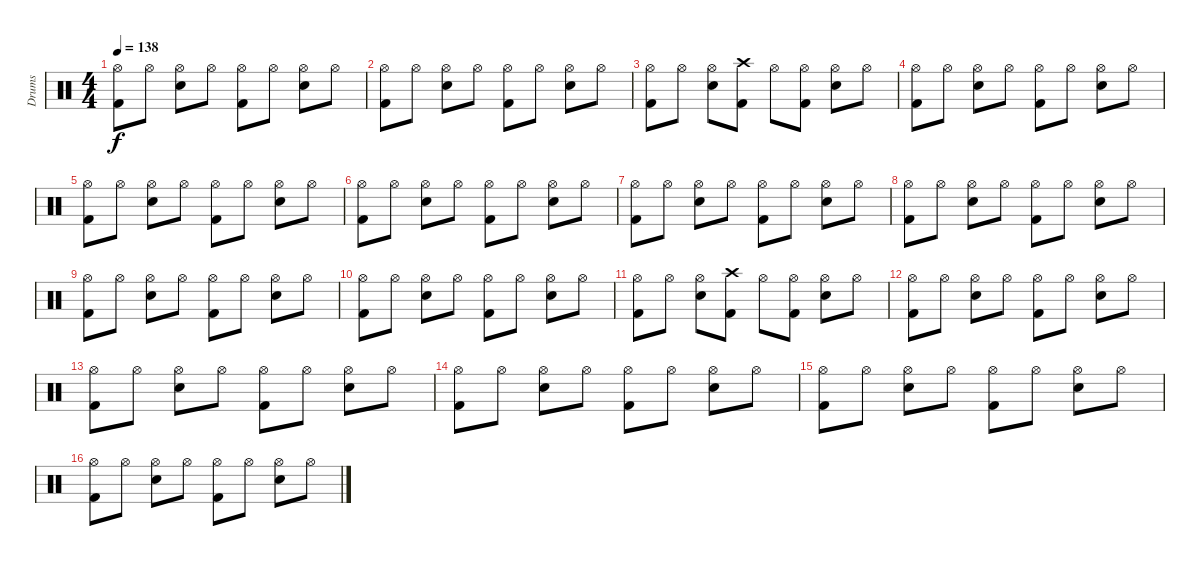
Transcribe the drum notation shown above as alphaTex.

\track ("Drums" "Drums") {instrument percussion}
\staff {score}
\articulation defaults
\ts (4 4)
\tempo 138
\clef neutral
\ks c
("Hi-Hat (open)" "Kick (hit) 2").8{dy f} "Hi-Hat (open)".8 ("Hi-Hat (open)" "Snare (hit) 2").8 "Hi-Hat (open)".8 ("Hi-Hat (open)" "Kick (hit) 2").8 "Hi-Hat (open)".8 ("Hi-Hat (open)" "Snare (hit) 2").8 "Hi-Hat (open)".8 |
("Hi-Hat (open)" "Kick (hit) 2").8 "Hi-Hat (open)".8 ("Hi-Hat (open)" "Snare (hit) 2").8 "Hi-Hat (open)".8 ("Hi-Hat (open)" "Kick (hit) 2").8 "Hi-Hat (open)".8 ("Hi-Hat (open)" "Snare (hit) 2").8 "Hi-Hat (open)".8 |
("Hi-Hat (open)" "Kick (hit) 2").8 "Hi-Hat (open)".8 ("Hi-Hat (open)" "Snare (hit) 2").8 ("Crash high (hit)" "Kick (hit) 2").8 "Hi-Hat (open)".8 ("Hi-Hat (open)" "Kick (hit) 2").8 ("Hi-Hat (open)" "Snare (hit) 2").8 "Hi-Hat (open)".8 |
("Hi-Hat (open)" "Kick (hit) 2").8 "Hi-Hat (open)".8 ("Hi-Hat (open)" "Snare (hit) 2").8 "Hi-Hat (open)".8 ("Hi-Hat (open)" "Kick (hit) 2").8 "Hi-Hat (open)".8 ("Hi-Hat (open)" "Snare (hit) 2").8 "Hi-Hat (open)".8 |
("Hi-Hat (open)" "Kick (hit) 2").8 "Hi-Hat (open)".8 ("Hi-Hat (open)" "Snare (hit) 2").8 "Hi-Hat (open)".8 ("Hi-Hat (open)" "Kick (hit) 2").8 "Hi-Hat (open)".8 ("Hi-Hat (open)" "Snare (hit) 2").8 "Hi-Hat (open)".8 |
("Hi-Hat (open)" "Kick (hit) 2").8 "Hi-Hat (open)".8 ("Hi-Hat (open)" "Snare (hit) 2").8 "Hi-Hat (open)".8 ("Hi-Hat (open)" "Kick (hit) 2").8 "Hi-Hat (open)".8 ("Hi-Hat (open)" "Snare (hit) 2").8 "Hi-Hat (open)".8 |
("Hi-Hat (open)" "Kick (hit) 2").8 "Hi-Hat (open)".8 ("Hi-Hat (open)" "Snare (hit) 2").8 "Hi-Hat (open)".8 ("Hi-Hat (open)" "Kick (hit) 2").8 "Hi-Hat (open)".8 ("Hi-Hat (open)" "Snare (hit) 2").8 "Hi-Hat (open)".8 |
("Hi-Hat (open)" "Kick (hit) 2").8 "Hi-Hat (open)".8 ("Hi-Hat (open)" "Snare (hit) 2").8 "Hi-Hat (open)".8 ("Hi-Hat (open)" "Kick (hit) 2").8 "Hi-Hat (open)".8 ("Hi-Hat (open)" "Snare (hit) 2").8 "Hi-Hat (open)".8 |
("Hi-Hat (open)" "Kick (hit) 2").8 "Hi-Hat (open)".8 ("Hi-Hat (open)" "Snare (hit) 2").8 "Hi-Hat (open)".8 ("Hi-Hat (open)" "Kick (hit) 2").8 "Hi-Hat (open)".8 ("Hi-Hat (open)" "Snare (hit) 2").8 "Hi-Hat (open)".8 |
("Hi-Hat (open)" "Kick (hit) 2").8 "Hi-Hat (open)".8 ("Hi-Hat (open)" "Snare (hit) 2").8 "Hi-Hat (open)".8 ("Hi-Hat (open)" "Kick (hit) 2").8 "Hi-Hat (open)".8 ("Hi-Hat (open)" "Snare (hit) 2").8 "Hi-Hat (open)".8 |
("Hi-Hat (open)" "Kick (hit) 2").8 "Hi-Hat (open)".8 ("Hi-Hat (open)" "Snare (hit) 2").8 ("Crash high (hit)" "Kick (hit) 2").8 "Hi-Hat (open)".8 ("Hi-Hat (open)" "Kick (hit) 2").8 ("Hi-Hat (open)" "Snare (hit) 2").8 "Hi-Hat (open)".8 |
("Hi-Hat (open)" "Kick (hit) 2").8 "Hi-Hat (open)".8 ("Hi-Hat (open)" "Snare (hit) 2").8 "Hi-Hat (open)".8 ("Hi-Hat (open)" "Kick (hit) 2").8 "Hi-Hat (open)".8 ("Hi-Hat (open)" "Snare (hit) 2").8 "Hi-Hat (open)".8 |
("Hi-Hat (open)" "Kick (hit) 2").8 "Hi-Hat (open)".8 ("Hi-Hat (open)" "Snare (hit) 2").8 "Hi-Hat (open)".8 ("Hi-Hat (open)" "Kick (hit) 2").8 "Hi-Hat (open)".8 ("Hi-Hat (open)" "Snare (hit) 2").8 "Hi-Hat (open)".8 |
("Hi-Hat (open)" "Kick (hit) 2").8 "Hi-Hat (open)".8 ("Hi-Hat (open)" "Snare (hit) 2").8 "Hi-Hat (open)".8 ("Hi-Hat (open)" "Kick (hit) 2").8 "Hi-Hat (open)".8 ("Hi-Hat (open)" "Snare (hit) 2").8 "Hi-Hat (open)".8 |
("Hi-Hat (open)" "Kick (hit) 2").8 "Hi-Hat (open)".8 ("Hi-Hat (open)" "Snare (hit) 2").8 "Hi-Hat (open)".8 ("Hi-Hat (open)" "Kick (hit) 2").8 "Hi-Hat (open)".8 ("Hi-Hat (open)" "Snare (hit) 2").8 "Hi-Hat (open)".8 |
("Hi-Hat (open)" "Kick (hit) 2").8 "Hi-Hat (open)".8 ("Hi-Hat (open)" "Snare (hit) 2").8 "Hi-Hat (open)".8 ("Hi-Hat (open)" "Kick (hit) 2").8 "Hi-Hat (open)".8 ("Hi-Hat (open)" "Snare (hit) 2").8 "Hi-Hat (open)".8
